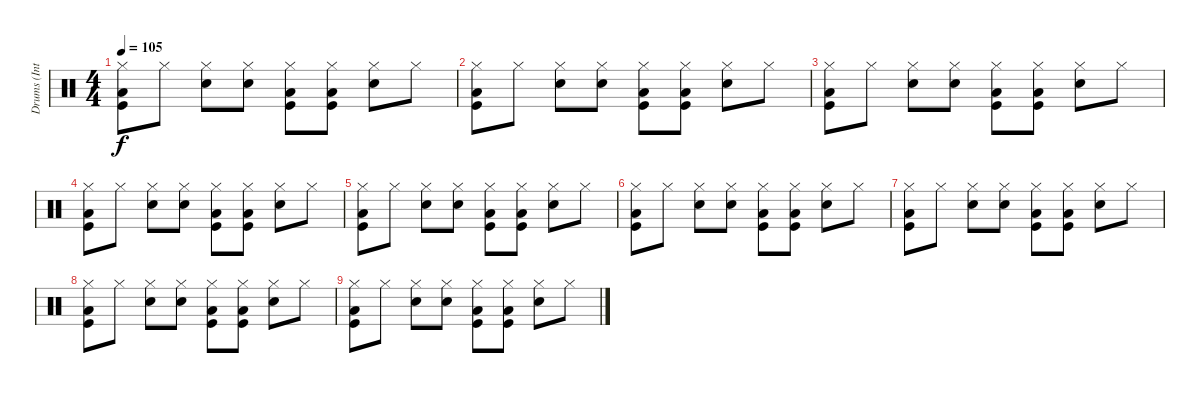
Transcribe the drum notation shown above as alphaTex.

\track ("Drums (Intro)" "Drums (Int") {instrument percussion}
\staff {score}
\articulation defaults
\ts (4 4)
\tempo 105
\clef neutral
\ks c
("Hi-Hat (closed)" "Low Floor Tom (hit)" "Kick (hit)").8{dy f} "Hi-Hat (closed)".8 ("Hi-Hat (closed)" "Snare (hit) 2").8 ("Hi-Hat (closed)" "Snare (hit) 2").8 ("Hi-Hat (closed)" "Low Floor Tom (hit)" "Kick (hit)").8 ("Hi-Hat (closed)" "Low Floor Tom (hit)" "Kick (hit)").8 ("Hi-Hat (closed)" "Snare (hit) 2").8 "Hi-Hat (closed)".8 |
("Hi-Hat (closed)" "Low Floor Tom (hit)" "Kick (hit)").8 "Hi-Hat (closed)".8 ("Hi-Hat (closed)" "Snare (hit) 2").8 ("Hi-Hat (closed)" "Snare (hit) 2").8 ("Hi-Hat (closed)" "Low Floor Tom (hit)" "Kick (hit)").8 ("Hi-Hat (closed)" "Low Floor Tom (hit)" "Kick (hit)").8 ("Hi-Hat (closed)" "Snare (hit) 2").8 "Hi-Hat (closed)".8 |
("Hi-Hat (closed)" "Low Floor Tom (hit)" "Kick (hit)").8 "Hi-Hat (closed)".8 ("Hi-Hat (closed)" "Snare (hit) 2").8 ("Hi-Hat (closed)" "Snare (hit) 2").8 ("Hi-Hat (closed)" "Low Floor Tom (hit)" "Kick (hit)").8 ("Hi-Hat (closed)" "Low Floor Tom (hit)" "Kick (hit)").8 ("Hi-Hat (closed)" "Snare (hit) 2").8 "Hi-Hat (closed)".8 |
("Hi-Hat (closed)" "Low Floor Tom (hit)" "Kick (hit)").8 "Hi-Hat (closed)".8 ("Hi-Hat (closed)" "Snare (hit) 2").8 ("Hi-Hat (closed)" "Snare (hit) 2").8 ("Hi-Hat (closed)" "Low Floor Tom (hit)" "Kick (hit)").8 ("Hi-Hat (closed)" "Low Floor Tom (hit)" "Kick (hit)").8 ("Hi-Hat (closed)" "Snare (hit) 2").8 "Hi-Hat (closed)".8 |
("Hi-Hat (closed)" "Low Floor Tom (hit)" "Kick (hit)").8 "Hi-Hat (closed)".8 ("Hi-Hat (closed)" "Snare (hit) 2").8 ("Hi-Hat (closed)" "Snare (hit) 2").8 ("Hi-Hat (closed)" "Low Floor Tom (hit)" "Kick (hit)").8 ("Hi-Hat (closed)" "Low Floor Tom (hit)" "Kick (hit)").8 ("Hi-Hat (closed)" "Snare (hit) 2").8 "Hi-Hat (closed)".8 |
("Hi-Hat (closed)" "Low Floor Tom (hit)" "Kick (hit)").8 "Hi-Hat (closed)".8 ("Hi-Hat (closed)" "Snare (hit) 2").8 ("Hi-Hat (closed)" "Snare (hit) 2").8 ("Hi-Hat (closed)" "Low Floor Tom (hit)" "Kick (hit)").8 ("Hi-Hat (closed)" "Low Floor Tom (hit)" "Kick (hit)").8 ("Hi-Hat (closed)" "Snare (hit) 2").8 "Hi-Hat (closed)".8 |
("Hi-Hat (closed)" "Low Floor Tom (hit)" "Kick (hit)").8 "Hi-Hat (closed)".8 ("Hi-Hat (closed)" "Snare (hit) 2").8 ("Hi-Hat (closed)" "Snare (hit) 2").8 ("Hi-Hat (closed)" "Low Floor Tom (hit)" "Kick (hit)").8 ("Hi-Hat (closed)" "Low Floor Tom (hit)" "Kick (hit)").8 ("Hi-Hat (closed)" "Snare (hit) 2").8 "Hi-Hat (closed)".8 |
("Hi-Hat (closed)" "Low Floor Tom (hit)" "Kick (hit)").8 "Hi-Hat (closed)".8 ("Hi-Hat (closed)" "Snare (hit) 2").8 ("Hi-Hat (closed)" "Snare (hit) 2").8 ("Hi-Hat (closed)" "Low Floor Tom (hit)" "Kick (hit)").8 ("Hi-Hat (closed)" "Low Floor Tom (hit)" "Kick (hit)").8 ("Hi-Hat (closed)" "Snare (hit) 2").8 "Hi-Hat (closed)".8 |
("Hi-Hat (closed)" "Low Floor Tom (hit)" "Kick (hit)").8 "Hi-Hat (closed)".8 ("Hi-Hat (closed)" "Snare (hit) 2").8 ("Hi-Hat (closed)" "Snare (hit) 2").8 ("Hi-Hat (closed)" "Low Floor Tom (hit)" "Kick (hit)").8 ("Hi-Hat (closed)" "Low Floor Tom (hit)" "Kick (hit)").8 ("Hi-Hat (closed)" "Snare (hit) 2").8 "Hi-Hat (closed)".8
